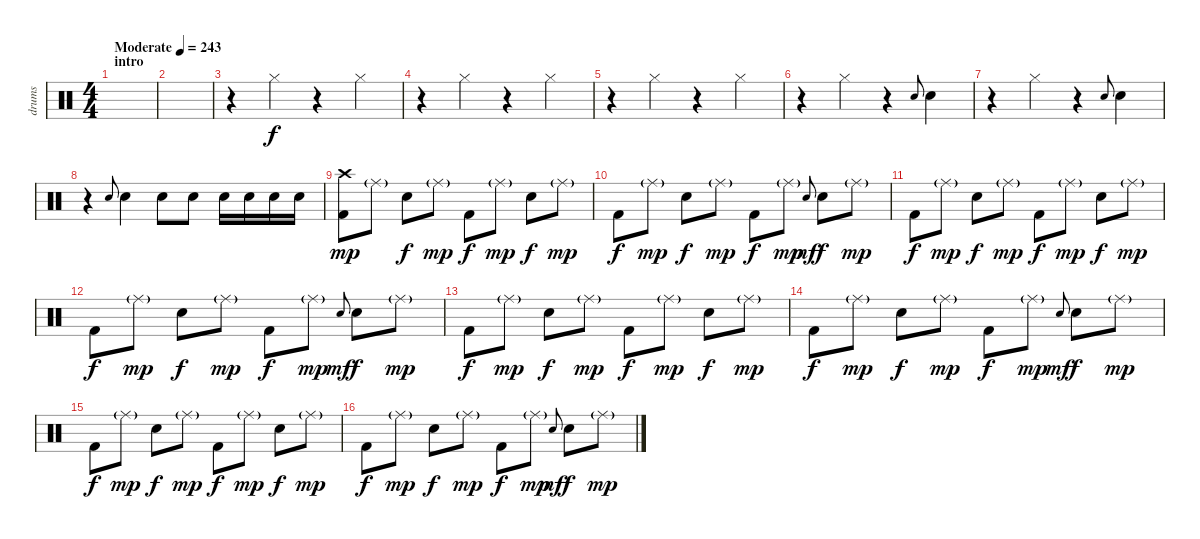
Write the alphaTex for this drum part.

\track ("drums" "drums") {instrument percussion}
\staff {score}
\articulation defaults
\ts (4 4)
\section ("" "intro")
\tempo (243 "Moderate")
\clef neutral
\ks c
|
|
r.4 "Hi-Hat (closed)".4 r.4 "Hi-Hat (closed)".4 |
r.4 "Hi-Hat (closed)".4 r.4 "Hi-Hat (closed)".4 |
r.4 "Hi-Hat (closed)".4 r.4 "Hi-Hat (closed)".4 |
r.4 "Hi-Hat (closed)".4 r.4 "Electric Snare (hit)"{x}.8{gr onbeat} "Electric Snare (hit)".4 |
r.4 "Hi-Hat (closed)".4 r.4 "Electric Snare (hit)"{x}.8{gr onbeat} "Electric Snare (hit)".4 |
r.4 "Electric Snare (hit)"{x}.8{gr onbeat} "Electric Snare (hit)".4 "Electric Snare (hit)".8 "Electric Snare (hit)".8 "Electric Snare (hit)".16 "Electric Snare (hit)".16 "Electric Snare (hit)".16 "Electric Snare (hit)".16 |
("Kick (hit) 2" "Crash high (hit)").8{dy mp} "Ride (middle)"{g}.8 "Electric Snare (hit)".8{dy f} "Ride (middle)"{g}.8{dy mp} "Kick (hit) 2".8{dy f} "Ride (middle)"{g}.8{dy mp} "Electric Snare (hit)".8{dy f} "Ride (middle)"{g}.8{dy mp} |
"Kick (hit) 2".8{dy f} "Ride (middle)"{g}.8{dy mp} "Electric Snare (hit)".8{dy f} "Ride (middle)"{g}.8{dy mp} "Kick (hit) 2".8{dy f} "Ride (middle)"{g}.8{dy mp} "Electric Snare (hit)"{x}.8{gr onbeat dy mf} "Electric Snare (hit)".8{dy f} "Ride (middle)"{g}.8{dy mp} |
"Kick (hit) 2".8{dy f} "Ride (middle)"{g}.8{dy mp} "Electric Snare (hit)".8{dy f} "Ride (middle)"{g}.8{dy mp} "Kick (hit) 2".8{dy f} "Ride (middle)"{g}.8{dy mp} "Electric Snare (hit)".8{dy f} "Ride (middle)"{g}.8{dy mp} |
"Kick (hit) 2".8{dy f} "Ride (middle)"{g}.8{dy mp} "Electric Snare (hit)".8{dy f} "Ride (middle)"{g}.8{dy mp} "Kick (hit) 2".8{dy f} "Ride (middle)"{g}.8{dy mp} "Electric Snare (hit)"{x}.8{gr onbeat dy mf} "Electric Snare (hit)".8{dy f} "Ride (middle)"{g}.8{dy mp} |
"Kick (hit) 2".8{dy f} "Ride (middle)"{g}.8{dy mp} "Electric Snare (hit)".8{dy f} "Ride (middle)"{g}.8{dy mp} "Kick (hit) 2".8{dy f} "Ride (middle)"{g}.8{dy mp} "Electric Snare (hit)".8{dy f} "Ride (middle)"{g}.8{dy mp} |
"Kick (hit) 2".8{dy f} "Ride (middle)"{g}.8{dy mp} "Electric Snare (hit)".8{dy f} "Ride (middle)"{g}.8{dy mp} "Kick (hit) 2".8{dy f} "Ride (middle)"{g}.8{dy mp} "Electric Snare (hit)"{x}.8{gr onbeat dy mf} "Electric Snare (hit)".8{dy f} "Ride (middle)"{g}.8{dy mp} |
"Kick (hit) 2".8{dy f} "Ride (middle)"{g}.8{dy mp} "Electric Snare (hit)".8{dy f} "Ride (middle)"{g}.8{dy mp} "Kick (hit) 2".8{dy f} "Ride (middle)"{g}.8{dy mp} "Electric Snare (hit)".8{dy f} "Ride (middle)"{g}.8{dy mp} |
"Kick (hit) 2".8{dy f} "Ride (middle)"{g}.8{dy mp} "Electric Snare (hit)".8{dy f} "Ride (middle)"{g}.8{dy mp} "Kick (hit) 2".8{dy f} "Ride (middle)"{g}.8{dy mp} "Electric Snare (hit)"{x}.8{gr onbeat dy mf} "Electric Snare (hit)".8{dy f} "Ride (middle)"{g}.8{dy mp}
